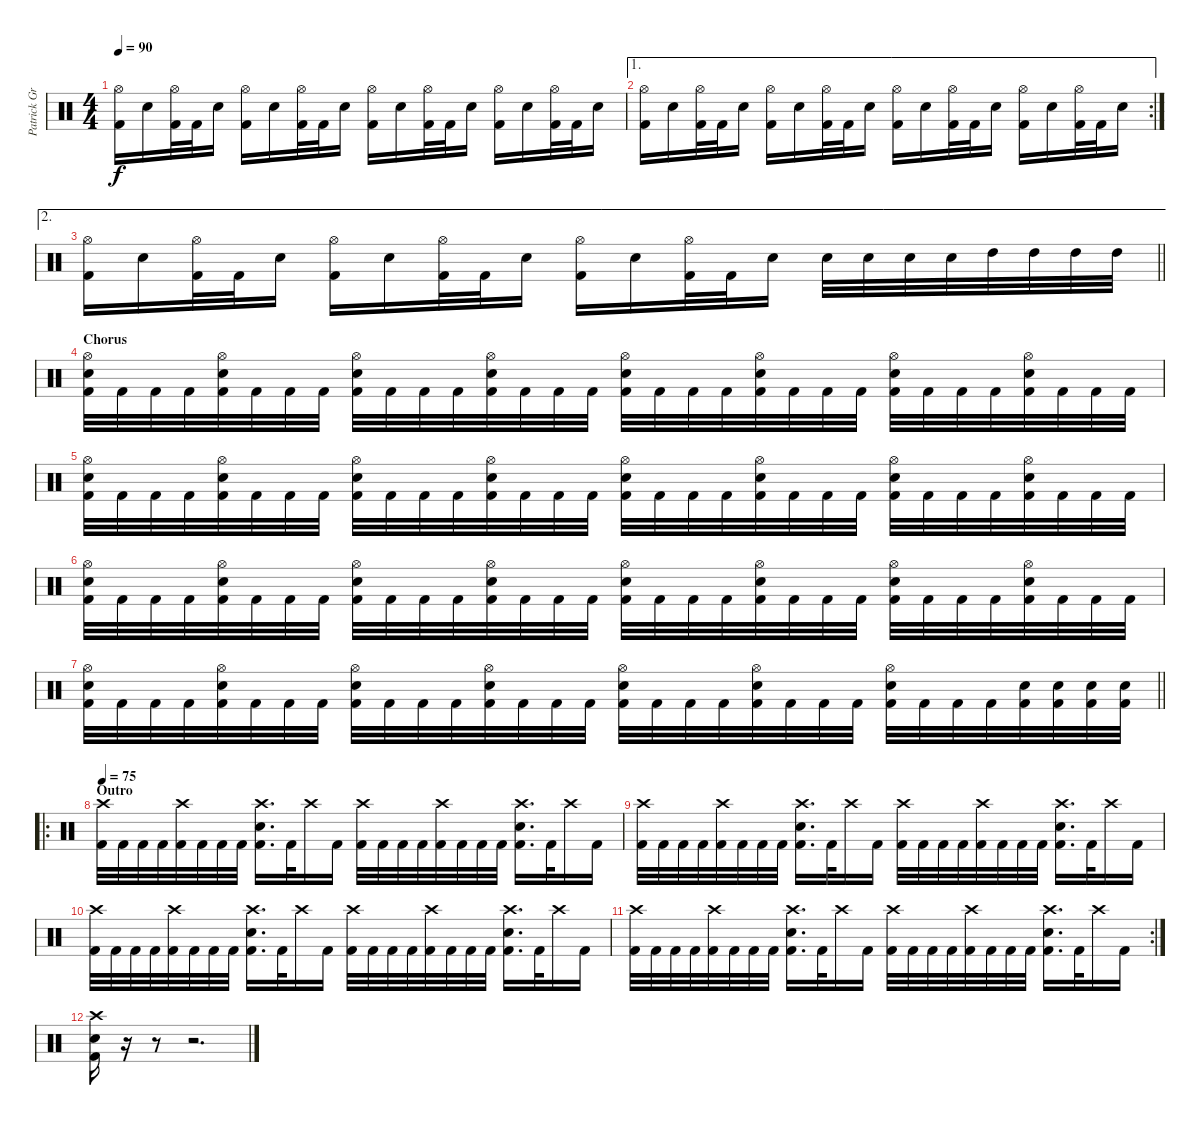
\track ("Patrick Grün - Drums" "Patrick Gr") {instrument percussion}
\staff {score}
\articulation defaults
\ts (4 4)
\tempo 90
\clef neutral
\ks c
("Hi-Hat (open)" "Kick (hit) 2").16{dy f} "Electric Snare (hit)".16 ("Hi-Hat (open)" "Kick (hit) 2").32 "Kick (hit) 2".32 "Electric Snare (hit)".16 ("Hi-Hat (open)" "Kick (hit) 2").16 "Electric Snare (hit)".16 ("Hi-Hat (open)" "Kick (hit) 2").32 "Kick (hit) 2".32 "Electric Snare (hit)".16 ("Hi-Hat (open)" "Kick (hit) 2").16 "Electric Snare (hit)".16 ("Hi-Hat (open)" "Kick (hit) 2").32 "Kick (hit) 2".32 "Electric Snare (hit)".16 ("Hi-Hat (open)" "Kick (hit) 2").16 "Electric Snare (hit)".16 ("Hi-Hat (open)" "Kick (hit) 2").32 "Kick (hit) 2".32 "Electric Snare (hit)".16 |
\ae 1
\rc 2
("Hi-Hat (open)" "Kick (hit) 2").16 "Electric Snare (hit)".16 ("Hi-Hat (open)" "Kick (hit) 2").32 "Kick (hit) 2".32 "Electric Snare (hit)".16 ("Hi-Hat (open)" "Kick (hit) 2").16 "Electric Snare (hit)".16 ("Hi-Hat (open)" "Kick (hit) 2").32 "Kick (hit) 2".32 "Electric Snare (hit)".16 ("Hi-Hat (open)" "Kick (hit) 2").16 "Electric Snare (hit)".16 ("Hi-Hat (open)" "Kick (hit) 2").32 "Kick (hit) 2".32 "Electric Snare (hit)".16 ("Hi-Hat (open)" "Kick (hit) 2").16 "Electric Snare (hit)".16 ("Hi-Hat (open)" "Kick (hit) 2").32 "Kick (hit) 2".32 "Electric Snare (hit)".16 |
\ae 2
\barLineRight lightlight
("Hi-Hat (open)" "Kick (hit) 2").16 "Electric Snare (hit)".16 ("Hi-Hat (open)" "Kick (hit) 2").32 "Kick (hit) 2".32 "Electric Snare (hit)".16 ("Hi-Hat (open)" "Kick (hit) 2").16 "Electric Snare (hit)".16 ("Hi-Hat (open)" "Kick (hit) 2").32 "Kick (hit) 2".32 "Electric Snare (hit)".16 ("Hi-Hat (open)" "Kick (hit) 2").16 "Electric Snare (hit)".16 ("Hi-Hat (open)" "Kick (hit) 2").32 "Kick (hit) 2".32 "Electric Snare (hit)".16 "Electric Snare (hit)".32 "Electric Snare (hit)".32 "Electric Snare (hit)".32 "Electric Snare (hit)".32 "High Tom (hit)".32 "High Tom (hit)".32 "High Tom (hit)".32 "High Tom (hit)".32 |
\section ("" "Chorus")
("Hi-Hat (open)" "Electric Snare (hit)" "Kick (hit) 2").32 "Kick (hit) 2".32 "Kick (hit) 2".32 "Kick (hit) 2".32 ("Hi-Hat (open)" "Electric Snare (hit)" "Kick (hit) 2").32 "Kick (hit) 2".32 "Kick (hit) 2".32 "Kick (hit) 2".32 ("Hi-Hat (open)" "Electric Snare (hit)" "Kick (hit) 2").32 "Kick (hit) 2".32 "Kick (hit) 2".32 "Kick (hit) 2".32 ("Hi-Hat (open)" "Electric Snare (hit)" "Kick (hit) 2").32 "Kick (hit) 2".32 "Kick (hit) 2".32 "Kick (hit) 2".32 ("Hi-Hat (open)" "Electric Snare (hit)" "Kick (hit) 2").32 "Kick (hit) 2".32 "Kick (hit) 2".32 "Kick (hit) 2".32 ("Hi-Hat (open)" "Electric Snare (hit)" "Kick (hit) 2").32 "Kick (hit) 2".32 "Kick (hit) 2".32 "Kick (hit) 2".32 ("Hi-Hat (open)" "Electric Snare (hit)" "Kick (hit) 2").32 "Kick (hit) 2".32 "Kick (hit) 2".32 "Kick (hit) 2".32 ("Hi-Hat (open)" "Electric Snare (hit)" "Kick (hit) 2").32 "Kick (hit) 2".32 "Kick (hit) 2".32 "Kick (hit) 2".32 |
("Hi-Hat (open)" "Electric Snare (hit)" "Kick (hit) 2").32 "Kick (hit) 2".32 "Kick (hit) 2".32 "Kick (hit) 2".32 ("Hi-Hat (open)" "Electric Snare (hit)" "Kick (hit) 2").32 "Kick (hit) 2".32 "Kick (hit) 2".32 "Kick (hit) 2".32 ("Hi-Hat (open)" "Electric Snare (hit)" "Kick (hit) 2").32 "Kick (hit) 2".32 "Kick (hit) 2".32 "Kick (hit) 2".32 ("Hi-Hat (open)" "Electric Snare (hit)" "Kick (hit) 2").32 "Kick (hit) 2".32 "Kick (hit) 2".32 "Kick (hit) 2".32 ("Hi-Hat (open)" "Electric Snare (hit)" "Kick (hit) 2").32 "Kick (hit) 2".32 "Kick (hit) 2".32 "Kick (hit) 2".32 ("Hi-Hat (open)" "Electric Snare (hit)" "Kick (hit) 2").32 "Kick (hit) 2".32 "Kick (hit) 2".32 "Kick (hit) 2".32 ("Hi-Hat (open)" "Electric Snare (hit)" "Kick (hit) 2").32 "Kick (hit) 2".32 "Kick (hit) 2".32 "Kick (hit) 2".32 ("Hi-Hat (open)" "Electric Snare (hit)" "Kick (hit) 2").32 "Kick (hit) 2".32 "Kick (hit) 2".32 "Kick (hit) 2".32 |
("Hi-Hat (open)" "Electric Snare (hit)" "Kick (hit) 2").32 "Kick (hit) 2".32 "Kick (hit) 2".32 "Kick (hit) 2".32 ("Hi-Hat (open)" "Electric Snare (hit)" "Kick (hit) 2").32 "Kick (hit) 2".32 "Kick (hit) 2".32 "Kick (hit) 2".32 ("Hi-Hat (open)" "Electric Snare (hit)" "Kick (hit) 2").32 "Kick (hit) 2".32 "Kick (hit) 2".32 "Kick (hit) 2".32 ("Hi-Hat (open)" "Electric Snare (hit)" "Kick (hit) 2").32 "Kick (hit) 2".32 "Kick (hit) 2".32 "Kick (hit) 2".32 ("Hi-Hat (open)" "Electric Snare (hit)" "Kick (hit) 2").32 "Kick (hit) 2".32 "Kick (hit) 2".32 "Kick (hit) 2".32 ("Hi-Hat (open)" "Electric Snare (hit)" "Kick (hit) 2").32 "Kick (hit) 2".32 "Kick (hit) 2".32 "Kick (hit) 2".32 ("Hi-Hat (open)" "Electric Snare (hit)" "Kick (hit) 2").32 "Kick (hit) 2".32 "Kick (hit) 2".32 "Kick (hit) 2".32 ("Hi-Hat (open)" "Electric Snare (hit)" "Kick (hit) 2").32 "Kick (hit) 2".32 "Kick (hit) 2".32 "Kick (hit) 2".32 |
\barLineRight lightlight
("Hi-Hat (open)" "Electric Snare (hit)" "Kick (hit) 2").32 "Kick (hit) 2".32 "Kick (hit) 2".32 "Kick (hit) 2".32 ("Hi-Hat (open)" "Electric Snare (hit)" "Kick (hit) 2").32 "Kick (hit) 2".32 "Kick (hit) 2".32 "Kick (hit) 2".32 ("Hi-Hat (open)" "Electric Snare (hit)" "Kick (hit) 2").32 "Kick (hit) 2".32 "Kick (hit) 2".32 "Kick (hit) 2".32 ("Hi-Hat (open)" "Electric Snare (hit)" "Kick (hit) 2").32 "Kick (hit) 2".32 "Kick (hit) 2".32 "Kick (hit) 2".32 ("Hi-Hat (open)" "Electric Snare (hit)" "Kick (hit) 2").32 "Kick (hit) 2".32 "Kick (hit) 2".32 "Kick (hit) 2".32 ("Hi-Hat (open)" "Electric Snare (hit)" "Kick (hit) 2").32 "Kick (hit) 2".32 "Kick (hit) 2".32 "Kick (hit) 2".32 ("Hi-Hat (open)" "Electric Snare (hit)" "Kick (hit) 2").32 "Kick (hit) 2".32 "Kick (hit) 2".32 "Kick (hit) 2".32 ("Electric Snare (hit)" "Kick (hit) 2").32 ("Electric Snare (hit)" "Kick (hit) 2").32 ("Electric Snare (hit)" "Kick (hit) 2").32 ("Electric Snare (hit)" "Kick (hit) 2").32 |
\ro
\section ("" "Outro")
\tempo 75
("Crash high (hit)" "Kick (hit) 2").32 "Kick (hit) 2".32 "Kick (hit) 2".32 "Kick (hit) 2".32 ("Crash high (hit)" "Kick (hit) 2").32 "Kick (hit) 2".32 "Kick (hit) 2".32 "Kick (hit) 2".32 ("Crash high (hit)" "Electric Snare (hit)" "Kick (hit) 2").16{d} "Kick (hit) 2".32 "Crash high (hit)".16 "Kick (hit) 2".16 ("Crash high (hit)" "Kick (hit) 2").32 "Kick (hit) 2".32 "Kick (hit) 2".32 "Kick (hit) 2".32 ("Crash high (hit)" "Kick (hit) 2").32 "Kick (hit) 2".32 "Kick (hit) 2".32 "Kick (hit) 2".32 ("Crash high (hit)" "Electric Snare (hit)" "Kick (hit) 2").16{d} "Kick (hit) 2".32 "Crash high (hit)".16 "Kick (hit) 2".16 |
("Crash high (hit)" "Kick (hit) 2").32 "Kick (hit) 2".32 "Kick (hit) 2".32 "Kick (hit) 2".32 ("Crash high (hit)" "Kick (hit) 2").32 "Kick (hit) 2".32 "Kick (hit) 2".32 "Kick (hit) 2".32 ("Crash high (hit)" "Electric Snare (hit)" "Kick (hit) 2").16{d} "Kick (hit) 2".32 "Crash high (hit)".16 "Kick (hit) 2".16 ("Crash high (hit)" "Kick (hit) 2").32 "Kick (hit) 2".32 "Kick (hit) 2".32 "Kick (hit) 2".32 ("Crash high (hit)" "Kick (hit) 2").32 "Kick (hit) 2".32 "Kick (hit) 2".32 "Kick (hit) 2".32 ("Crash high (hit)" "Electric Snare (hit)" "Kick (hit) 2").16{d} "Kick (hit) 2".32 "Crash high (hit)".16 "Kick (hit) 2".16 |
("Crash high (hit)" "Kick (hit) 2").32 "Kick (hit) 2".32 "Kick (hit) 2".32 "Kick (hit) 2".32 ("Crash high (hit)" "Kick (hit) 2").32 "Kick (hit) 2".32 "Kick (hit) 2".32 "Kick (hit) 2".32 ("Crash high (hit)" "Electric Snare (hit)" "Kick (hit) 2").16{d} "Kick (hit) 2".32 "Crash high (hit)".16 "Kick (hit) 2".16 ("Crash high (hit)" "Kick (hit) 2").32 "Kick (hit) 2".32 "Kick (hit) 2".32 "Kick (hit) 2".32 ("Crash high (hit)" "Kick (hit) 2").32 "Kick (hit) 2".32 "Kick (hit) 2".32 "Kick (hit) 2".32 ("Crash high (hit)" "Electric Snare (hit)" "Kick (hit) 2").16{d} "Kick (hit) 2".32 "Crash high (hit)".16 "Kick (hit) 2".16 |
\rc 2
("Crash high (hit)" "Kick (hit) 2").32 "Kick (hit) 2".32 "Kick (hit) 2".32 "Kick (hit) 2".32 ("Crash high (hit)" "Kick (hit) 2").32 "Kick (hit) 2".32 "Kick (hit) 2".32 "Kick (hit) 2".32 ("Crash high (hit)" "Electric Snare (hit)" "Kick (hit) 2").16{d} "Kick (hit) 2".32 "Crash high (hit)".16 "Kick (hit) 2".16 ("Crash high (hit)" "Kick (hit) 2").32 "Kick (hit) 2".32 "Kick (hit) 2".32 "Kick (hit) 2".32 ("Crash high (hit)" "Kick (hit) 2").32 "Kick (hit) 2".32 "Kick (hit) 2".32 "Kick (hit) 2".32 ("Crash high (hit)" "Electric Snare (hit)" "Kick (hit) 2").16{d} "Kick (hit) 2".32 "Crash high (hit)".16 "Kick (hit) 2".16 |
("Crash high (hit)" "Electric Snare (hit)" "Kick (hit) 2").16 r.16 r.8 r.2{d}
